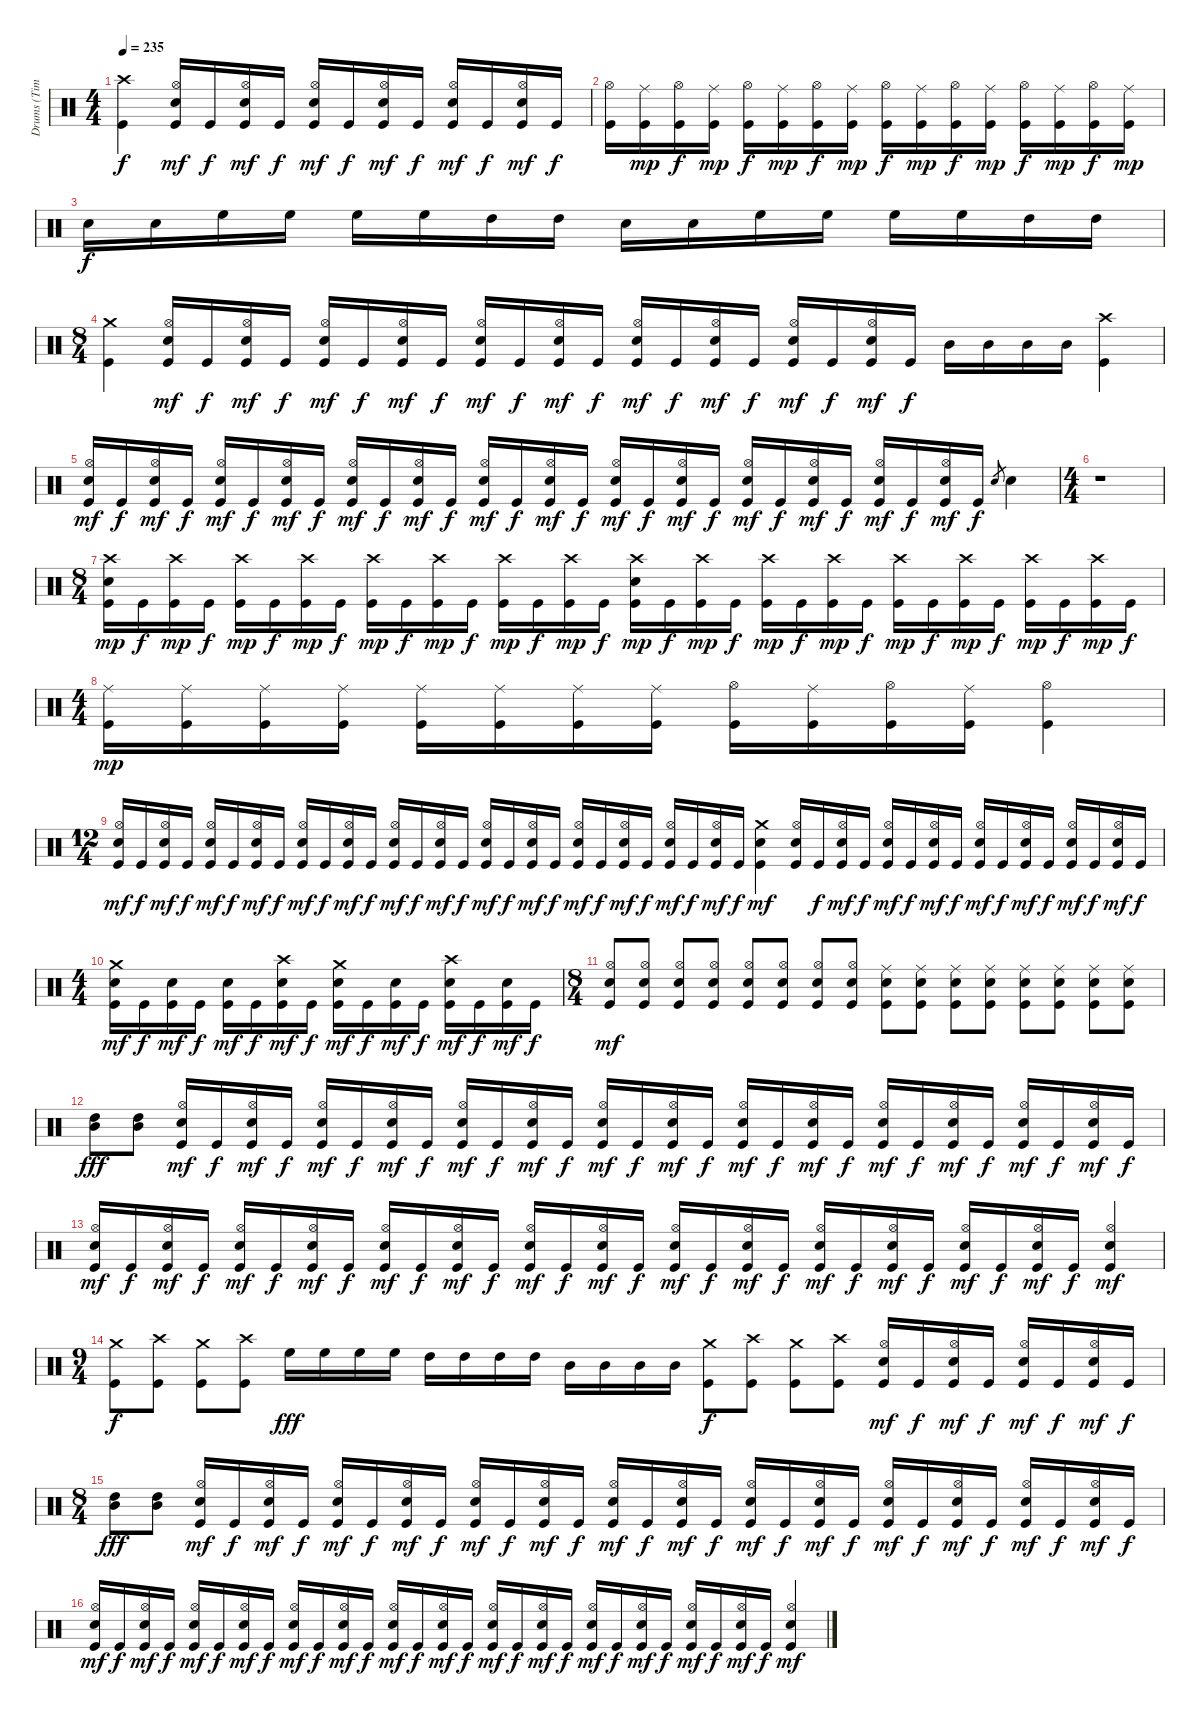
\track ("Drums (Tim Yeung)" "Drums (Tim") {instrument percussion}
\staff {score}
\articulation defaults
\ts (4 4)
\tempo 235
\clef neutral
\ks c
("Crash high (hit)" "Kick (hit)").4{dy f} ("Hi-Hat (open)" "Electric Snare (hit)" "Kick (hit)").16{dy mf} "Kick (hit)".16{dy f} ("Hi-Hat (open)" "Electric Snare (hit)" "Kick (hit)").16{dy mf} "Kick (hit)".16{dy f} ("Hi-Hat (open)" "Electric Snare (hit)" "Kick (hit)").16{dy mf} "Kick (hit)".16{dy f} ("Hi-Hat (open)" "Electric Snare (hit)" "Kick (hit)").16{dy mf} "Kick (hit)".16{dy f} ("Hi-Hat (open)" "Electric Snare (hit)" "Kick (hit)").16{dy mf} "Kick (hit)".16{dy f} ("Hi-Hat (open)" "Electric Snare (hit)" "Kick (hit)").16{dy mf} "Kick (hit)".16{dy f} |
("Hi-Hat (open)" "Kick (hit)").16 ("Ride (middle)" "Kick (hit)").16{dy mp} ("Hi-Hat (open)" "Kick (hit)").16{dy f} ("Ride (middle)" "Kick (hit)").16{dy mp} ("Hi-Hat (open)" "Kick (hit)").16{dy f} ("Ride (middle)" "Kick (hit)").16{dy mp} ("Hi-Hat (open)" "Kick (hit)").16{dy f} ("Ride (middle)" "Kick (hit)").16{dy mp} ("Hi-Hat (open)" "Kick (hit)").16{dy f} ("Ride (middle)" "Kick (hit)").16{dy mp} ("Hi-Hat (open)" "Kick (hit)").16{dy f} ("Ride (middle)" "Kick (hit)").16{dy mp} ("Hi-Hat (open)" "Kick (hit)").16{dy f} ("Ride (middle)" "Kick (hit)").16{dy mp} ("Hi-Hat (open)" "Kick (hit)").16{dy f} ("Ride (middle)" "Kick (hit)").16{dy mp} |
"Electric Snare (hit)".16{dy f} "Electric Snare (hit)".16 "High Floor Tom (hit)".16 "High Floor Tom (hit)".16 "High Floor Tom (hit)".16 "High Floor Tom (hit)".16 "High Tom (hit)".16 "High Tom (hit)".16 "Electric Snare (hit)".16 "Electric Snare (hit)".16 "High Floor Tom (hit)".16 "High Floor Tom (hit)".16 "High Floor Tom (hit)".16 "High Floor Tom (hit)".16 "High Tom (hit)".16 "High Tom (hit)".16 |
\ts (8 4)
("Crash medium (hit)" "Kick (hit)").4 ("Hi-Hat (open)" "Electric Snare (hit)" "Kick (hit)").16{dy mf} "Kick (hit)".16{dy f} ("Hi-Hat (open)" "Electric Snare (hit)" "Kick (hit)").16{dy mf} "Kick (hit)".16{dy f} ("Hi-Hat (open)" "Electric Snare (hit)" "Kick (hit)").16{dy mf} "Kick (hit)".16{dy f} ("Hi-Hat (open)" "Electric Snare (hit)" "Kick (hit)").16{dy mf} "Kick (hit)".16{dy f} ("Hi-Hat (open)" "Electric Snare (hit)" "Kick (hit)").16{dy mf} "Kick (hit)".16{dy f} ("Hi-Hat (open)" "Electric Snare (hit)" "Kick (hit)").16{dy mf} "Kick (hit)".16{dy f} ("Hi-Hat (open)" "Electric Snare (hit)" "Kick (hit)").16{dy mf} "Kick (hit)".16{dy f} ("Hi-Hat (open)" "Electric Snare (hit)" "Kick (hit)").16{dy mf} "Kick (hit)".16{dy f} ("Hi-Hat (open)" "Electric Snare (hit)" "Kick (hit)").16{dy mf} "Kick (hit)".16{dy f} ("Hi-Hat (open)" "Electric Snare (hit)" "Kick (hit)").16{dy mf} "Kick (hit)".16{dy f} "Mid Tom (hit)".16 "Mid Tom (hit)".16 "Mid Tom (hit)".16 "Mid Tom (hit)".16 ("Crash high (hit)" "Kick (hit)").4 |
("Hi-Hat (open)" "Electric Snare (hit)" "Kick (hit)").16{dy mf} "Kick (hit)".16{dy f} ("Hi-Hat (open)" "Electric Snare (hit)" "Kick (hit)").16{dy mf} "Kick (hit)".16{dy f} ("Hi-Hat (open)" "Electric Snare (hit)" "Kick (hit)").16{dy mf} "Kick (hit)".16{dy f} ("Hi-Hat (open)" "Electric Snare (hit)" "Kick (hit)").16{dy mf} "Kick (hit)".16{dy f} ("Hi-Hat (open)" "Electric Snare (hit)" "Kick (hit)").16{dy mf} "Kick (hit)".16{dy f} ("Hi-Hat (open)" "Electric Snare (hit)" "Kick (hit)").16{dy mf} "Kick (hit)".16{dy f} ("Hi-Hat (open)" "Electric Snare (hit)" "Kick (hit)").16{dy mf} "Kick (hit)".16{dy f} ("Hi-Hat (open)" "Electric Snare (hit)" "Kick (hit)").16{dy mf} "Kick (hit)".16{dy f} ("Hi-Hat (open)" "Electric Snare (hit)" "Kick (hit)").16{dy mf} "Kick (hit)".16{dy f} ("Hi-Hat (open)" "Electric Snare (hit)" "Kick (hit)").16{dy mf} "Kick (hit)".16{dy f} ("Hi-Hat (open)" "Electric Snare (hit)" "Kick (hit)").16{dy mf} "Kick (hit)".16{dy f} ("Hi-Hat (open)" "Electric Snare (hit)" "Kick (hit)").16{dy mf} "Kick (hit)".16{dy f} ("Hi-Hat (open)" "Electric Snare (hit)" "Kick (hit)").16{dy mf} "Kick (hit)".16{dy f} ("Hi-Hat (open)" "Electric Snare (hit)" "Kick (hit)").16{dy mf} "Kick (hit)".16{dy f} "Electric Snare (hit)".8{gr} "Electric Snare (hit)".4 |
\ts (4 4)
r.1 |
\ts (8 4)
("Crash high (hit)" "Electric Snare (hit)" "Kick (hit)").16{dy mp} "Kick (hit)".16{dy f} ("Crash high (hit)" "Kick (hit)").16{dy mp} "Kick (hit)".16{dy f} ("Crash high (hit)" "Kick (hit)").16{dy mp} "Kick (hit)".16{dy f} ("Crash high (hit)" "Kick (hit)").16{dy mp} "Kick (hit)".16{dy f} ("Crash high (hit)" "Kick (hit)").16{dy mp} "Kick (hit)".16{dy f} ("Crash high (hit)" "Kick (hit)").16{dy mp} "Kick (hit)".16{dy f} ("Crash high (hit)" "Kick (hit)").16{dy mp} "Kick (hit)".16{dy f} ("Crash high (hit)" "Kick (hit)").16{dy mp} "Kick (hit)".16{dy f} ("Crash high (hit)" "Electric Snare (hit)" "Kick (hit)").16{dy mp} "Kick (hit)".16{dy f} ("Crash high (hit)" "Kick (hit)").16{dy mp} "Kick (hit)".16{dy f} ("Crash high (hit)" "Kick (hit)").16{dy mp} "Kick (hit)".16{dy f} ("Crash high (hit)" "Kick (hit)").16{dy mp} "Kick (hit)".16{dy f} ("Crash high (hit)" "Kick (hit)").16{dy mp} "Kick (hit)".16{dy f} ("Crash high (hit)" "Kick (hit)").16{dy mp} "Kick (hit)".16{dy f} ("Crash high (hit)" "Kick (hit)").16{dy mp} "Kick (hit)".16{dy f} ("Crash high (hit)" "Kick (hit)").16{dy mp} "Kick (hit)".16{dy f} |
\ts (4 4)
("Ride (middle)" "Kick (hit)").16{dy mp} ("Ride (middle)" "Kick (hit)").16 ("Ride (middle)" "Kick (hit)").16 ("Ride (middle)" "Kick (hit)").16 ("Ride (middle)" "Kick (hit)").16 ("Ride (middle)" "Kick (hit)").16 ("Ride (middle)" "Kick (hit)").16 ("Ride (middle)" "Kick (hit)").16 ("Hi-Hat (open)" "Kick (hit)").16 ("Ride (middle)" "Kick (hit)").16 ("Hi-Hat (open)" "Kick (hit)").16 ("Ride (middle)" "Kick (hit)").16 ("Hi-Hat (open)" "Kick (hit)").4 |
\ts (12 4)
("Hi-Hat (open)" "Electric Snare (hit)" "Kick (hit)").16{dy mf} "Kick (hit)".16{dy f} ("Hi-Hat (open)" "Electric Snare (hit)" "Kick (hit)").16{dy mf} "Kick (hit)".16{dy f} ("Hi-Hat (open)" "Electric Snare (hit)" "Kick (hit)").16{dy mf} "Kick (hit)".16{dy f} ("Hi-Hat (open)" "Electric Snare (hit)" "Kick (hit)").16{dy mf} "Kick (hit)".16{dy f} ("Hi-Hat (open)" "Electric Snare (hit)" "Kick (hit)").16{dy mf} "Kick (hit)".16{dy f} ("Hi-Hat (open)" "Electric Snare (hit)" "Kick (hit)").16{dy mf} "Kick (hit)".16{dy f} ("Hi-Hat (open)" "Electric Snare (hit)" "Kick (hit)").16{dy mf} "Kick (hit)".16{dy f} ("Hi-Hat (open)" "Electric Snare (hit)" "Kick (hit)").16{dy mf} "Kick (hit)".16{dy f} ("Hi-Hat (open)" "Electric Snare (hit)" "Kick (hit)").16{dy mf} "Kick (hit)".16{dy f} ("Hi-Hat (open)" "Electric Snare (hit)" "Kick (hit)").16{dy mf} "Kick (hit)".16{dy f} ("Hi-Hat (open)" "Electric Snare (hit)" "Kick (hit)").16{dy mf} "Kick (hit)".16{dy f} ("Hi-Hat (open)" "Electric Snare (hit)" "Kick (hit)").16{dy mf} "Kick (hit)".16{dy f} ("Hi-Hat (open)" "Electric Snare (hit)" "Kick (hit)").16{dy mf} "Kick (hit)".16{dy f} ("Hi-Hat (open)" "Electric Snare (hit)" "Kick (hit)").16{dy mf} "Kick (hit)".16{dy f} ("Crash medium (hit)" "Electric Snare (hit)" "Kick (hit)").4{dy mf} ("Hi-Hat (open)" "Electric Snare (hit)" "Kick (hit)").16 "Kick (hit)".16{dy f} ("Hi-Hat (open)" "Electric Snare (hit)" "Kick (hit)").16{dy mf} "Kick (hit)".16{dy f} ("Hi-Hat (open)" "Electric Snare (hit)" "Kick (hit)").16{dy mf} "Kick (hit)".16{dy f} ("Hi-Hat (open)" "Electric Snare (hit)" "Kick (hit)").16{dy mf} "Kick (hit)".16{dy f} ("Hi-Hat (open)" "Electric Snare (hit)" "Kick (hit)").16{dy mf} "Kick (hit)".16{dy f} ("Hi-Hat (open)" "Electric Snare (hit)" "Kick (hit)").16{dy mf} "Kick (hit)".16{dy f} ("Hi-Hat (open)" "Electric Snare (hit)" "Kick (hit)").16{dy mf} "Kick (hit)".16{dy f} ("Hi-Hat (open)" "Electric Snare (hit)" "Kick (hit)").16{dy mf} "Kick (hit)".16{dy f} |
\ts (4 4)
("Crash medium (hit)" "Electric Snare (hit)" "Kick (hit)").16{dy mf} "Kick (hit)".16{dy f} ("Electric Snare (hit)" "Kick (hit)").16{dy mf} "Kick (hit)".16{dy f} ("Electric Snare (hit)" "Kick (hit)").16{dy mf} "Kick (hit)".16{dy f} ("Crash high (hit)" "Electric Snare (hit)" "Kick (hit)").16{dy mf} "Kick (hit)".16{dy f} ("Crash medium (hit)" "Electric Snare (hit)" "Kick (hit)").16{dy mf} "Kick (hit)".16{dy f} ("Electric Snare (hit)" "Kick (hit)").16{dy mf} "Kick (hit)".16{dy f} ("Crash high (hit)" "Electric Snare (hit)" "Kick (hit)").16{dy mf} "Kick (hit)".16{dy f} ("Electric Snare (hit)" "Kick (hit)").16{dy mf} "Kick (hit)".16{dy f} |
\ts (8 4)
("Hi-Hat (open)" "Electric Snare (hit)" "Kick (hit)").8{dy mf} ("Hi-Hat (open)" "Electric Snare (hit)" "Kick (hit)").8 ("Hi-Hat (open)" "Electric Snare (hit)" "Kick (hit)").8 ("Hi-Hat (open)" "Electric Snare (hit)" "Kick (hit)").8 ("Hi-Hat (open)" "Electric Snare (hit)" "Kick (hit)").8 ("Hi-Hat (open)" "Electric Snare (hit)" "Kick (hit)").8 ("Hi-Hat (open)" "Electric Snare (hit)" "Kick (hit)").8 ("Hi-Hat (open)" "Electric Snare (hit)" "Kick (hit)").8 ("Ride (middle)" "Electric Snare (hit)" "Kick (hit)").8 ("Ride (middle)" "Electric Snare (hit)" "Kick (hit)").8 ("Ride (middle)" "Electric Snare (hit)" "Kick (hit)").8 ("Ride (middle)" "Electric Snare (hit)" "Kick (hit)").8 ("Ride (middle)" "Electric Snare (hit)" "Kick (hit)").8 ("Ride (middle)" "Electric Snare (hit)" "Kick (hit)").8 ("Ride (middle)" "Electric Snare (hit)" "Kick (hit)").8 ("Ride (middle)" "Electric Snare (hit)" "Kick (hit)").8 |
("High Tom (hit)" "Mid Tom (hit)").8{dy fff} ("High Tom (hit)" "Mid Tom (hit)").8 ("Hi-Hat (open)" "Electric Snare (hit)" "Kick (hit)").16{dy mf} "Kick (hit)".16{dy f} ("Hi-Hat (open)" "Electric Snare (hit)" "Kick (hit)").16{dy mf} "Kick (hit)".16{dy f} ("Hi-Hat (open)" "Electric Snare (hit)" "Kick (hit)").16{dy mf} "Kick (hit)".16{dy f} ("Hi-Hat (open)" "Electric Snare (hit)" "Kick (hit)").16{dy mf} "Kick (hit)".16{dy f} ("Hi-Hat (open)" "Electric Snare (hit)" "Kick (hit)").16{dy mf} "Kick (hit)".16{dy f} ("Hi-Hat (open)" "Electric Snare (hit)" "Kick (hit)").16{dy mf} "Kick (hit)".16{dy f} ("Hi-Hat (open)" "Electric Snare (hit)" "Kick (hit)").16{dy mf} "Kick (hit)".16{dy f} ("Hi-Hat (open)" "Electric Snare (hit)" "Kick (hit)").16{dy mf} "Kick (hit)".16{dy f} ("Hi-Hat (open)" "Electric Snare (hit)" "Kick (hit)").16{dy mf} "Kick (hit)".16{dy f} ("Hi-Hat (open)" "Electric Snare (hit)" "Kick (hit)").16{dy mf} "Kick (hit)".16{dy f} ("Hi-Hat (open)" "Electric Snare (hit)" "Kick (hit)").16{dy mf} "Kick (hit)".16{dy f} ("Hi-Hat (open)" "Electric Snare (hit)" "Kick (hit)").16{dy mf} "Kick (hit)".16{dy f} ("Hi-Hat (open)" "Electric Snare (hit)" "Kick (hit)").16{dy mf} "Kick (hit)".16{dy f} ("Hi-Hat (open)" "Electric Snare (hit)" "Kick (hit)").16{dy mf} "Kick (hit)".16{dy f} |
("Hi-Hat (open)" "Electric Snare (hit)" "Kick (hit)").16{dy mf} "Kick (hit)".16{dy f} ("Hi-Hat (open)" "Electric Snare (hit)" "Kick (hit)").16{dy mf} "Kick (hit)".16{dy f} ("Hi-Hat (open)" "Electric Snare (hit)" "Kick (hit)").16{dy mf} "Kick (hit)".16{dy f} ("Hi-Hat (open)" "Electric Snare (hit)" "Kick (hit)").16{dy mf} "Kick (hit)".16{dy f} ("Hi-Hat (open)" "Electric Snare (hit)" "Kick (hit)").16{dy mf} "Kick (hit)".16{dy f} ("Hi-Hat (open)" "Electric Snare (hit)" "Kick (hit)").16{dy mf} "Kick (hit)".16{dy f} ("Hi-Hat (open)" "Electric Snare (hit)" "Kick (hit)").16{dy mf} "Kick (hit)".16{dy f} ("Hi-Hat (open)" "Electric Snare (hit)" "Kick (hit)").16{dy mf} "Kick (hit)".16{dy f} ("Hi-Hat (open)" "Electric Snare (hit)" "Kick (hit)").16{dy mf} "Kick (hit)".16{dy f} ("Hi-Hat (open)" "Electric Snare (hit)" "Kick (hit)").16{dy mf} "Kick (hit)".16{dy f} ("Hi-Hat (open)" "Electric Snare (hit)" "Kick (hit)").16{dy mf} "Kick (hit)".16{dy f} ("Hi-Hat (open)" "Electric Snare (hit)" "Kick (hit)").16{dy mf} "Kick (hit)".16{dy f} ("Hi-Hat (open)" "Electric Snare (hit)" "Kick (hit)").16{dy mf} "Kick (hit)".16{dy f} ("Hi-Hat (open)" "Electric Snare (hit)" "Kick (hit)").16{dy mf} "Kick (hit)".16{dy f} ("Hi-Hat (open)" "Electric Snare (hit)" "Kick (hit)").4{dy mf} |
\ts (9 4)
("Crash medium (hit)" "Kick (hit)").8{dy f} ("Crash high (hit)" "Kick (hit)").8 ("Crash medium (hit)" "Kick (hit)").8 ("Crash high (hit)" "Kick (hit)").8 "High Floor Tom (hit)".16{dy fff} "High Floor Tom (hit)".16 "High Floor Tom (hit)".16 "High Floor Tom (hit)".16 "High Tom (hit)".16 "High Tom (hit)".16 "High Tom (hit)".16 "High Tom (hit)".16 "Mid Tom (hit)".16 "Mid Tom (hit)".16 "Mid Tom (hit)".16 "Mid Tom (hit)".16 ("Crash medium (hit)" "Kick (hit)").8{dy f} ("Crash high (hit)" "Kick (hit)").8 ("Crash medium (hit)" "Kick (hit)").8 ("Crash high (hit)" "Kick (hit)").8 ("Hi-Hat (open)" "Electric Snare (hit)" "Kick (hit)").16{dy mf} "Kick (hit)".16{dy f} ("Hi-Hat (open)" "Electric Snare (hit)" "Kick (hit)").16{dy mf} "Kick (hit)".16{dy f} ("Hi-Hat (open)" "Electric Snare (hit)" "Kick (hit)").16{dy mf} "Kick (hit)".16{dy f} ("Hi-Hat (open)" "Electric Snare (hit)" "Kick (hit)").16{dy mf} "Kick (hit)".16{dy f} |
\ts (8 4)
("High Tom (hit)" "Mid Tom (hit)").8{dy fff} ("High Tom (hit)" "Mid Tom (hit)").8 ("Hi-Hat (open)" "Electric Snare (hit)" "Kick (hit)").16{dy mf} "Kick (hit)".16{dy f} ("Hi-Hat (open)" "Electric Snare (hit)" "Kick (hit)").16{dy mf} "Kick (hit)".16{dy f} ("Hi-Hat (open)" "Electric Snare (hit)" "Kick (hit)").16{dy mf} "Kick (hit)".16{dy f} ("Hi-Hat (open)" "Electric Snare (hit)" "Kick (hit)").16{dy mf} "Kick (hit)".16{dy f} ("Hi-Hat (open)" "Electric Snare (hit)" "Kick (hit)").16{dy mf} "Kick (hit)".16{dy f} ("Hi-Hat (open)" "Electric Snare (hit)" "Kick (hit)").16{dy mf} "Kick (hit)".16{dy f} ("Hi-Hat (open)" "Electric Snare (hit)" "Kick (hit)").16{dy mf} "Kick (hit)".16{dy f} ("Hi-Hat (open)" "Electric Snare (hit)" "Kick (hit)").16{dy mf} "Kick (hit)".16{dy f} ("Hi-Hat (open)" "Electric Snare (hit)" "Kick (hit)").16{dy mf} "Kick (hit)".16{dy f} ("Hi-Hat (open)" "Electric Snare (hit)" "Kick (hit)").16{dy mf} "Kick (hit)".16{dy f} ("Hi-Hat (open)" "Electric Snare (hit)" "Kick (hit)").16{dy mf} "Kick (hit)".16{dy f} ("Hi-Hat (open)" "Electric Snare (hit)" "Kick (hit)").16{dy mf} "Kick (hit)".16{dy f} ("Hi-Hat (open)" "Electric Snare (hit)" "Kick (hit)").16{dy mf} "Kick (hit)".16{dy f} ("Hi-Hat (open)" "Electric Snare (hit)" "Kick (hit)").16{dy mf} "Kick (hit)".16{dy f} |
("Hi-Hat (open)" "Electric Snare (hit)" "Kick (hit)").16{dy mf} "Kick (hit)".16{dy f} ("Hi-Hat (open)" "Electric Snare (hit)" "Kick (hit)").16{dy mf} "Kick (hit)".16{dy f} ("Hi-Hat (open)" "Electric Snare (hit)" "Kick (hit)").16{dy mf} "Kick (hit)".16{dy f} ("Hi-Hat (open)" "Electric Snare (hit)" "Kick (hit)").16{dy mf} "Kick (hit)".16{dy f} ("Hi-Hat (open)" "Electric Snare (hit)" "Kick (hit)").16{dy mf} "Kick (hit)".16{dy f} ("Hi-Hat (open)" "Electric Snare (hit)" "Kick (hit)").16{dy mf} "Kick (hit)".16{dy f} ("Hi-Hat (open)" "Electric Snare (hit)" "Kick (hit)").16{dy mf} "Kick (hit)".16{dy f} ("Hi-Hat (open)" "Electric Snare (hit)" "Kick (hit)").16{dy mf} "Kick (hit)".16{dy f} ("Hi-Hat (open)" "Electric Snare (hit)" "Kick (hit)").16{dy mf} "Kick (hit)".16{dy f} ("Hi-Hat (open)" "Electric Snare (hit)" "Kick (hit)").16{dy mf} "Kick (hit)".16{dy f} ("Hi-Hat (open)" "Electric Snare (hit)" "Kick (hit)").16{dy mf} "Kick (hit)".16{dy f} ("Hi-Hat (open)" "Electric Snare (hit)" "Kick (hit)").16{dy mf} "Kick (hit)".16{dy f} ("Hi-Hat (open)" "Electric Snare (hit)" "Kick (hit)").16{dy mf} "Kick (hit)".16{dy f} ("Hi-Hat (open)" "Electric Snare (hit)" "Kick (hit)").16{dy mf} "Kick (hit)".16{dy f} ("Hi-Hat (open)" "Electric Snare (hit)" "Kick (hit)").4{dy mf}
